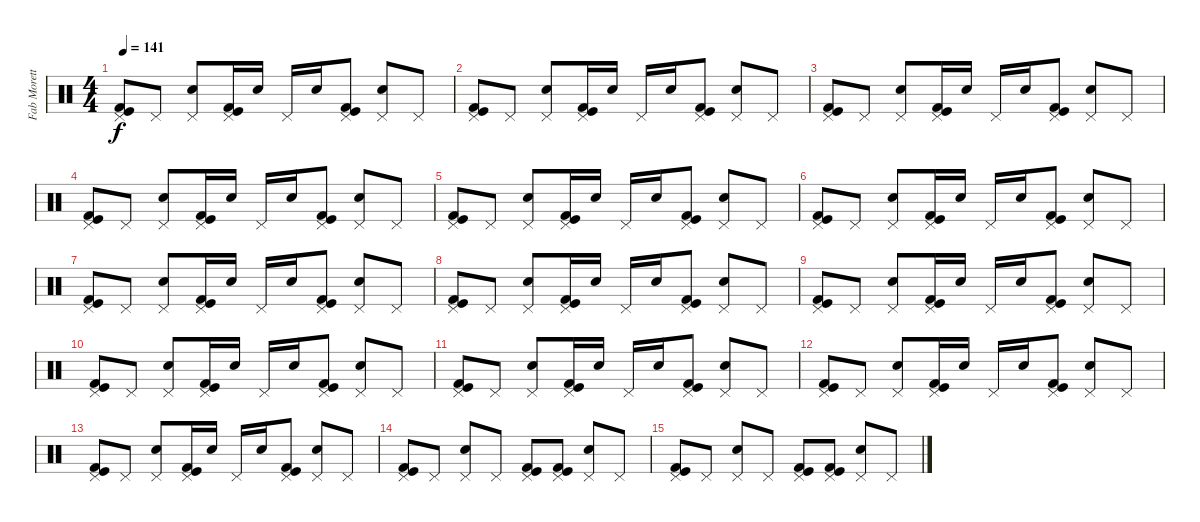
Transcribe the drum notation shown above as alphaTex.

\track ("Fab Moretti - Drums" "Fab Morett") {instrument percussion}
\staff {score}
\articulation defaults
\ts (4 4)
\tempo 141
\clef neutral
\ks c
("Pedal Hi-Hat (hit)" "Kick (hit) 2" "Kick (hit)").8{dy f} "Pedal Hi-Hat (hit)".8 ("Pedal Hi-Hat (hit)" "Snare (hit) 2").8 ("Pedal Hi-Hat (hit)" "Kick (hit) 2" "Kick (hit)").16 "Snare (hit) 2".16 "Pedal Hi-Hat (hit)".16 "Snare (hit) 2".16 ("Pedal Hi-Hat (hit)" "Kick (hit) 2" "Kick (hit)").8 ("Pedal Hi-Hat (hit)" "Snare (hit) 2").8 "Pedal Hi-Hat (hit)".8 |
("Pedal Hi-Hat (hit)" "Kick (hit) 2" "Kick (hit)").8 "Pedal Hi-Hat (hit)".8 ("Pedal Hi-Hat (hit)" "Snare (hit) 2").8 ("Pedal Hi-Hat (hit)" "Kick (hit) 2" "Kick (hit)").16 "Snare (hit) 2".16 "Pedal Hi-Hat (hit)".16 "Snare (hit) 2".16 ("Pedal Hi-Hat (hit)" "Kick (hit) 2" "Kick (hit)").8 ("Pedal Hi-Hat (hit)" "Snare (hit) 2").8 "Pedal Hi-Hat (hit)".8 |
("Pedal Hi-Hat (hit)" "Kick (hit) 2" "Kick (hit)").8 "Pedal Hi-Hat (hit)".8 ("Pedal Hi-Hat (hit)" "Snare (hit) 2").8 ("Pedal Hi-Hat (hit)" "Kick (hit) 2" "Kick (hit)").16 "Snare (hit) 2".16 "Pedal Hi-Hat (hit)".16 "Snare (hit) 2".16 ("Pedal Hi-Hat (hit)" "Kick (hit) 2" "Kick (hit)").8 ("Pedal Hi-Hat (hit)" "Snare (hit) 2").8 "Pedal Hi-Hat (hit)".8 |
("Pedal Hi-Hat (hit)" "Kick (hit) 2" "Kick (hit)").8 "Pedal Hi-Hat (hit)".8 ("Pedal Hi-Hat (hit)" "Snare (hit) 2").8 ("Pedal Hi-Hat (hit)" "Kick (hit) 2" "Kick (hit)").16 "Snare (hit) 2".16 "Pedal Hi-Hat (hit)".16 "Snare (hit) 2".16 ("Pedal Hi-Hat (hit)" "Kick (hit) 2" "Kick (hit)").8 ("Pedal Hi-Hat (hit)" "Snare (hit) 2").8 "Pedal Hi-Hat (hit)".8 |
("Pedal Hi-Hat (hit)" "Kick (hit) 2" "Kick (hit)").8 "Pedal Hi-Hat (hit)".8 ("Pedal Hi-Hat (hit)" "Snare (hit) 2").8 ("Pedal Hi-Hat (hit)" "Kick (hit) 2" "Kick (hit)").16 "Snare (hit) 2".16 "Pedal Hi-Hat (hit)".16 "Snare (hit) 2".16 ("Pedal Hi-Hat (hit)" "Kick (hit) 2" "Kick (hit)").8 ("Pedal Hi-Hat (hit)" "Snare (hit) 2").8 "Pedal Hi-Hat (hit)".8 |
("Pedal Hi-Hat (hit)" "Kick (hit) 2" "Kick (hit)").8 "Pedal Hi-Hat (hit)".8 ("Pedal Hi-Hat (hit)" "Snare (hit) 2").8 ("Pedal Hi-Hat (hit)" "Kick (hit) 2" "Kick (hit)").16 "Snare (hit) 2".16 "Pedal Hi-Hat (hit)".16 "Snare (hit) 2".16 ("Pedal Hi-Hat (hit)" "Kick (hit) 2" "Kick (hit)").8 ("Pedal Hi-Hat (hit)" "Snare (hit) 2").8 "Pedal Hi-Hat (hit)".8 |
("Pedal Hi-Hat (hit)" "Kick (hit) 2" "Kick (hit)").8 "Pedal Hi-Hat (hit)".8 ("Pedal Hi-Hat (hit)" "Snare (hit) 2").8 ("Pedal Hi-Hat (hit)" "Kick (hit) 2" "Kick (hit)").16 "Snare (hit) 2".16 "Pedal Hi-Hat (hit)".16 "Snare (hit) 2".16 ("Pedal Hi-Hat (hit)" "Kick (hit) 2" "Kick (hit)").8 ("Pedal Hi-Hat (hit)" "Snare (hit) 2").8 "Pedal Hi-Hat (hit)".8 |
("Pedal Hi-Hat (hit)" "Kick (hit) 2" "Kick (hit)").8 "Pedal Hi-Hat (hit)".8 ("Pedal Hi-Hat (hit)" "Snare (hit) 2").8 ("Pedal Hi-Hat (hit)" "Kick (hit) 2" "Kick (hit)").16 "Snare (hit) 2".16 "Pedal Hi-Hat (hit)".16 "Snare (hit) 2".16 ("Pedal Hi-Hat (hit)" "Kick (hit) 2" "Kick (hit)").8 ("Pedal Hi-Hat (hit)" "Snare (hit) 2").8 "Pedal Hi-Hat (hit)".8 |
("Pedal Hi-Hat (hit)" "Kick (hit) 2" "Kick (hit)").8 "Pedal Hi-Hat (hit)".8 ("Pedal Hi-Hat (hit)" "Snare (hit) 2").8 ("Pedal Hi-Hat (hit)" "Kick (hit) 2" "Kick (hit)").16 "Snare (hit) 2".16 "Pedal Hi-Hat (hit)".16 "Snare (hit) 2".16 ("Pedal Hi-Hat (hit)" "Kick (hit) 2" "Kick (hit)").8 ("Pedal Hi-Hat (hit)" "Snare (hit) 2").8 "Pedal Hi-Hat (hit)".8 |
("Pedal Hi-Hat (hit)" "Kick (hit) 2" "Kick (hit)").8 "Pedal Hi-Hat (hit)".8 ("Pedal Hi-Hat (hit)" "Snare (hit) 2").8 ("Pedal Hi-Hat (hit)" "Kick (hit) 2" "Kick (hit)").16 "Snare (hit) 2".16 "Pedal Hi-Hat (hit)".16 "Snare (hit) 2".16 ("Pedal Hi-Hat (hit)" "Kick (hit) 2" "Kick (hit)").8 ("Pedal Hi-Hat (hit)" "Snare (hit) 2").8 "Pedal Hi-Hat (hit)".8 |
("Pedal Hi-Hat (hit)" "Kick (hit) 2" "Kick (hit)").8 "Pedal Hi-Hat (hit)".8 ("Pedal Hi-Hat (hit)" "Snare (hit) 2").8 ("Pedal Hi-Hat (hit)" "Kick (hit) 2" "Kick (hit)").16 "Snare (hit) 2".16 "Pedal Hi-Hat (hit)".16 "Snare (hit) 2".16 ("Pedal Hi-Hat (hit)" "Kick (hit) 2" "Kick (hit)").8 ("Pedal Hi-Hat (hit)" "Snare (hit) 2").8 "Pedal Hi-Hat (hit)".8 |
("Pedal Hi-Hat (hit)" "Kick (hit) 2" "Kick (hit)").8 "Pedal Hi-Hat (hit)".8 ("Pedal Hi-Hat (hit)" "Snare (hit) 2").8 ("Pedal Hi-Hat (hit)" "Kick (hit) 2" "Kick (hit)").16 "Snare (hit) 2".16 "Pedal Hi-Hat (hit)".16 "Snare (hit) 2".16 ("Pedal Hi-Hat (hit)" "Kick (hit) 2" "Kick (hit)").8 ("Pedal Hi-Hat (hit)" "Snare (hit) 2").8 "Pedal Hi-Hat (hit)".8 |
("Pedal Hi-Hat (hit)" "Kick (hit) 2" "Kick (hit)").8 "Pedal Hi-Hat (hit)".8 ("Pedal Hi-Hat (hit)" "Snare (hit) 2").8 ("Pedal Hi-Hat (hit)" "Kick (hit) 2" "Kick (hit)").16 "Snare (hit) 2".16 "Pedal Hi-Hat (hit)".16 "Snare (hit) 2".16 ("Pedal Hi-Hat (hit)" "Kick (hit) 2" "Kick (hit)").8 ("Pedal Hi-Hat (hit)" "Snare (hit) 2").8 "Pedal Hi-Hat (hit)".8 |
("Pedal Hi-Hat (hit)" "Kick (hit) 2" "Kick (hit)").8 "Pedal Hi-Hat (hit)".8 ("Pedal Hi-Hat (hit)" "Snare (hit) 2").8 "Pedal Hi-Hat (hit)".8 ("Pedal Hi-Hat (hit)" "Kick (hit) 2" "Kick (hit)").8 ("Pedal Hi-Hat (hit)" "Kick (hit) 2" "Kick (hit)").8 ("Pedal Hi-Hat (hit)" "Snare (hit) 2").8 "Pedal Hi-Hat (hit)".8 |
("Pedal Hi-Hat (hit)" "Kick (hit) 2" "Kick (hit)").8 "Pedal Hi-Hat (hit)".8 ("Pedal Hi-Hat (hit)" "Snare (hit) 2").8 "Pedal Hi-Hat (hit)".8 ("Pedal Hi-Hat (hit)" "Kick (hit) 2" "Kick (hit)").8 ("Pedal Hi-Hat (hit)" "Kick (hit) 2" "Kick (hit)").8 ("Pedal Hi-Hat (hit)" "Snare (hit) 2").8 "Pedal Hi-Hat (hit)".8
